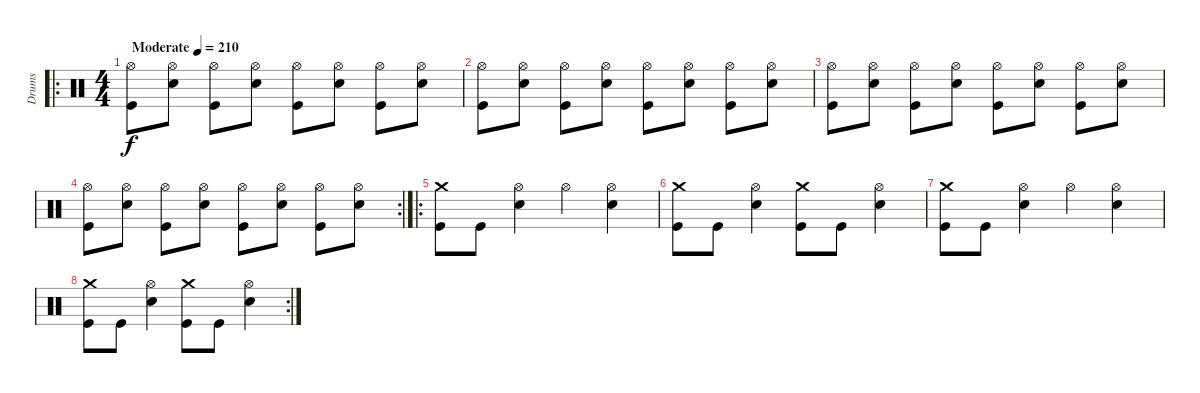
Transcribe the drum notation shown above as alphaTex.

\track ("Drums" "Drums") {instrument percussion}
\staff {score}
\articulation defaults
\ro
\ts (4 4)
\tempo (210 "Moderate")
\clef neutral
\ks c
("Hi-Hat (open)" "Kick (hit)").8{dy f} ("Hi-Hat (open)" "Snare (hit) 2").8 ("Hi-Hat (open)" "Kick (hit)").8 ("Hi-Hat (open)" "Snare (hit) 2").8 ("Hi-Hat (open)" "Kick (hit)").8 ("Hi-Hat (open)" "Snare (hit) 2").8 ("Hi-Hat (open)" "Kick (hit)").8 ("Hi-Hat (open)" "Snare (hit) 2").8 |
("Hi-Hat (open)" "Kick (hit)").8 ("Hi-Hat (open)" "Snare (hit) 2").8 ("Hi-Hat (open)" "Kick (hit)").8 ("Hi-Hat (open)" "Snare (hit) 2").8 ("Hi-Hat (open)" "Kick (hit)").8 ("Hi-Hat (open)" "Snare (hit) 2").8 ("Hi-Hat (open)" "Kick (hit)").8 ("Hi-Hat (open)" "Snare (hit) 2").8 |
("Hi-Hat (open)" "Kick (hit)").8 ("Hi-Hat (open)" "Snare (hit) 2").8 ("Hi-Hat (open)" "Kick (hit)").8 ("Hi-Hat (open)" "Snare (hit) 2").8 ("Hi-Hat (open)" "Kick (hit)").8 ("Hi-Hat (open)" "Snare (hit) 2").8 ("Hi-Hat (open)" "Kick (hit)").8 ("Hi-Hat (open)" "Snare (hit) 2").8 |
\rc 2
("Hi-Hat (open)" "Kick (hit)").8 ("Hi-Hat (open)" "Snare (hit) 2").8 ("Hi-Hat (open)" "Kick (hit)").8 ("Hi-Hat (open)" "Snare (hit) 2").8 ("Hi-Hat (open)" "Kick (hit)").8 ("Hi-Hat (open)" "Snare (hit) 2").8 ("Hi-Hat (open)" "Kick (hit)").8 ("Hi-Hat (open)" "Snare (hit) 2").8 |
\ro
("Crash medium (hit)" "Kick (hit)").8 "Kick (hit)".8 ("Hi-Hat (open)" "Snare (hit) 2").4 "Hi-Hat (open)".4 ("Hi-Hat (open)" "Snare (hit) 2").4 |
("Crash medium (hit)" "Kick (hit)").8 "Kick (hit)".8 ("Hi-Hat (open)" "Snare (hit) 2").4 ("Crash medium (hit)" "Kick (hit)").8 "Kick (hit)".8 ("Hi-Hat (open)" "Snare (hit) 2").4 |
("Crash medium (hit)" "Kick (hit)").8 "Kick (hit)".8 ("Hi-Hat (open)" "Snare (hit) 2").4 "Hi-Hat (open)".4 ("Hi-Hat (open)" "Snare (hit) 2").4 |
\rc 2
("Crash medium (hit)" "Kick (hit)").8 "Kick (hit)".8 ("Hi-Hat (open)" "Snare (hit) 2").4 ("Crash medium (hit)" "Kick (hit)").8 "Kick (hit)".8 ("Hi-Hat (open)" "Snare (hit) 2").4
